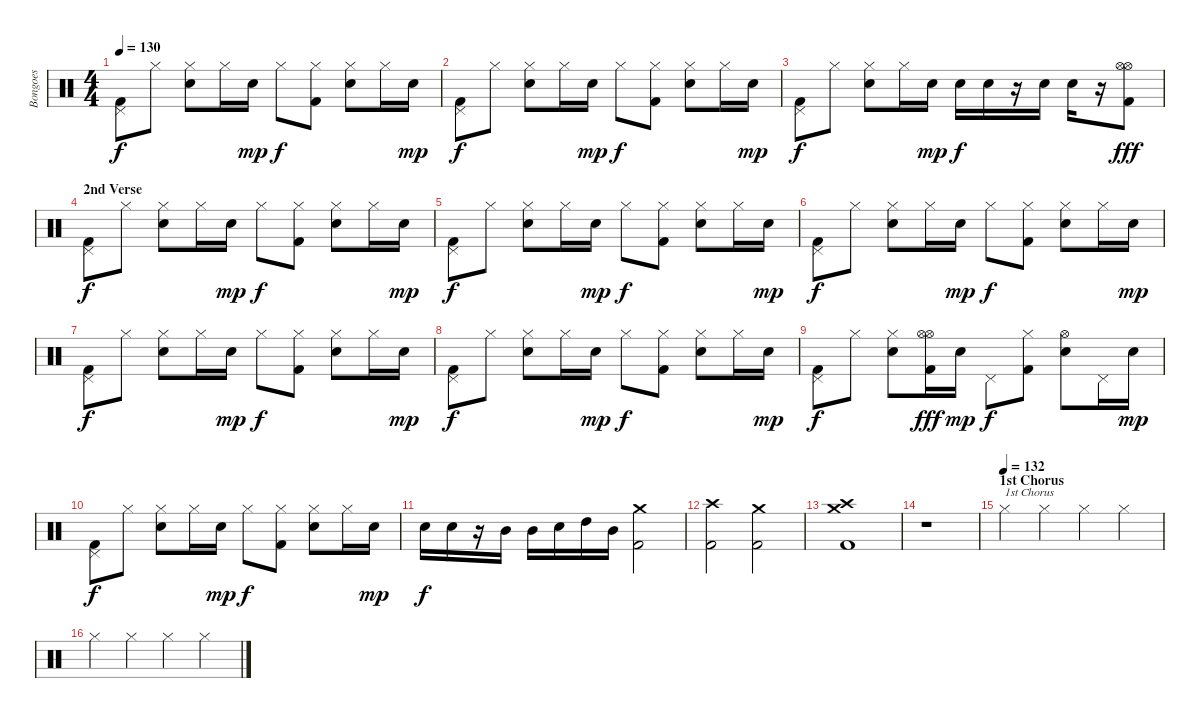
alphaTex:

\track ("Bongoes" "Bongoes") {instrument percussion}
\staff {score}
\articulation defaults
\ts (4 4)
\tempo 130
\clef neutral
\ks c
("Kick (hit) 2" "Pedal Hi-Hat (hit)").8{dy f} "Hi-Hat (closed)".8 ("Snare (hit) 2" "Hi-Hat (closed)").8 "Hi-Hat (closed)".16 "Snare (hit) 2".16{dy mp} "Hi-Hat (closed)".8{dy f} ("Kick (hit) 2" "Hi-Hat (closed)").8 ("Snare (hit) 2" "Hi-Hat (closed)").8 "Hi-Hat (closed)".16 "Snare (hit) 2".16{dy mp} |
("Kick (hit) 2" "Pedal Hi-Hat (hit)").8{dy f} "Hi-Hat (closed)".8 ("Snare (hit) 2" "Hi-Hat (closed)").8 "Hi-Hat (closed)".16 "Snare (hit) 2".16{dy mp} "Hi-Hat (closed)".8{dy f} ("Kick (hit) 2" "Hi-Hat (closed)").8 ("Snare (hit) 2" "Hi-Hat (closed)").8 "Hi-Hat (closed)".16 "Snare (hit) 2".16{dy mp} |
("Kick (hit) 2" "Pedal Hi-Hat (hit)").8{dy f} "Hi-Hat (closed)".8 ("Snare (hit) 2" "Hi-Hat (closed)").8 "Hi-Hat (closed)".16 "Snare (hit) 2".16{dy mp} "Snare (hit) 2".16{dy f} "Snare (hit) 2".16 r.16 "Snare (hit) 2".16 "Snare (hit) 2".16 r.16 ("Kick (hit) 2" "Hi-Hat (open)" "Hi-Hat (open)").8{dy fff} |
\section ("" "2nd Verse")
("Kick (hit) 2" "Pedal Hi-Hat (hit)").8{dy f} "Hi-Hat (closed)".8 ("Snare (hit) 2" "Hi-Hat (closed)").8 "Hi-Hat (closed)".16 "Snare (hit) 2".16{dy mp} "Hi-Hat (closed)".8{dy f} ("Kick (hit) 2" "Hi-Hat (closed)").8 ("Snare (hit) 2" "Hi-Hat (closed)").8 "Hi-Hat (closed)".16 "Snare (hit) 2".16{dy mp} |
("Kick (hit) 2" "Pedal Hi-Hat (hit)").8{dy f} "Hi-Hat (closed)".8 ("Snare (hit) 2" "Hi-Hat (closed)").8 "Hi-Hat (closed)".16 "Snare (hit) 2".16{dy mp} "Hi-Hat (closed)".8{dy f} ("Kick (hit) 2" "Hi-Hat (closed)").8 ("Snare (hit) 2" "Hi-Hat (closed)").8 "Hi-Hat (closed)".16 "Snare (hit) 2".16{dy mp} |
("Kick (hit) 2" "Pedal Hi-Hat (hit)").8{dy f} "Hi-Hat (closed)".8 ("Snare (hit) 2" "Hi-Hat (closed)").8 "Hi-Hat (closed)".16 "Snare (hit) 2".16{dy mp} "Hi-Hat (closed)".8{dy f} ("Kick (hit) 2" "Hi-Hat (closed)").8 ("Snare (hit) 2" "Hi-Hat (closed)").8 "Hi-Hat (closed)".16 "Snare (hit) 2".16{dy mp} |
("Kick (hit) 2" "Pedal Hi-Hat (hit)").8{dy f} "Hi-Hat (closed)".8 ("Snare (hit) 2" "Hi-Hat (closed)").8 "Hi-Hat (closed)".16 "Snare (hit) 2".16{dy mp} "Hi-Hat (closed)".8{dy f} ("Kick (hit) 2" "Hi-Hat (closed)").8 ("Snare (hit) 2" "Hi-Hat (closed)").8 "Hi-Hat (closed)".16 "Snare (hit) 2".16{dy mp} |
("Kick (hit) 2" "Pedal Hi-Hat (hit)").8{dy f} "Hi-Hat (closed)".8 ("Snare (hit) 2" "Hi-Hat (closed)").8 "Hi-Hat (closed)".16 "Snare (hit) 2".16{dy mp} "Hi-Hat (closed)".8{dy f} ("Kick (hit) 2" "Hi-Hat (closed)").8 ("Snare (hit) 2" "Hi-Hat (closed)").8 "Hi-Hat (closed)".16 "Snare (hit) 2".16{dy mp} |
("Kick (hit) 2" "Pedal Hi-Hat (hit)").8{dy f} "Hi-Hat (closed)".8 ("Snare (hit) 2" "Hi-Hat (closed)").8 ("Kick (hit) 2" "Hi-Hat (open)" "Hi-Hat (open)").16{dy fff} "Snare (hit) 2".16{dy mp} "Pedal Hi-Hat (hit)".8{dy f} ("Kick (hit) 2" "Hi-Hat (closed)").8 ("Snare (hit) 2" "Hi-Hat (open)").8 "Pedal Hi-Hat (hit)".16 "Snare (hit) 2".16{dy mp} |
("Kick (hit) 2" "Pedal Hi-Hat (hit)").8{dy f} "Hi-Hat (closed)".8 ("Snare (hit) 2" "Hi-Hat (closed)").8 "Hi-Hat (closed)".16 "Snare (hit) 2".16{dy mp} "Hi-Hat (closed)".8{dy f} ("Kick (hit) 2" "Hi-Hat (closed)").8 ("Snare (hit) 2" "Hi-Hat (closed)").8 "Hi-Hat (closed)".16 "Snare (hit) 2".16{dy mp} |
"Snare (hit) 2".16{dy f} "Snare (hit) 2".16 r.16 "Mid Tom (hit)".16 "Mid Tom (hit)".16 "Snare (hit) 2".16 "High Tom (hit)".16 "Mid Tom (hit)".16 ("Kick (hit) 2" "Crash medium (hit)").2 |
("Kick (hit) 2" "Crash high (hit)").2 ("Kick (hit) 2" "Crash medium (hit)").2 |
("Kick (hit) 2" "Crash medium (hit)" "Crash high (hit)").1 |
r.1 |
\section ("" "1st Chorus")
\tempo (132)
"Hi-Hat (closed)".4{txt "1st Chorus"} "Hi-Hat (closed)".4 "Hi-Hat (closed)".4 "Hi-Hat (closed)".4 |
"Hi-Hat (closed)".4 "Hi-Hat (closed)".4 "Hi-Hat (closed)".4 "Hi-Hat (closed)".4
